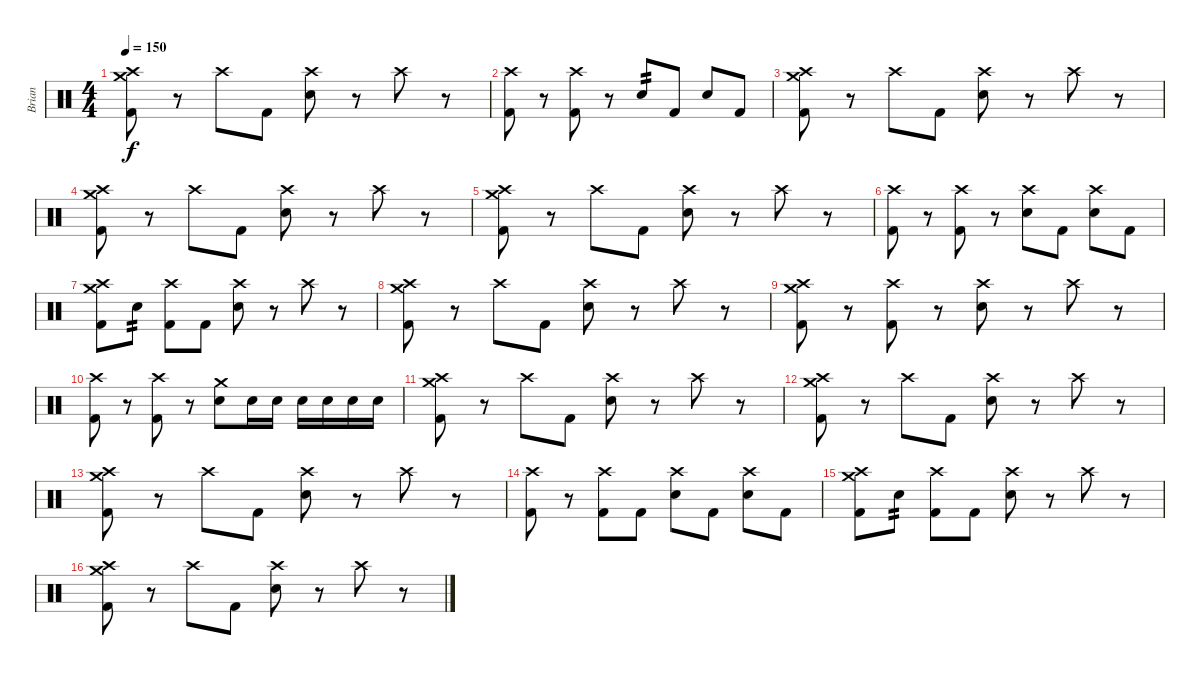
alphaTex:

\track ("Brian" "Brian") {instrument percussion}
\staff {score}
\articulation defaults
\ts (4 4)
\tempo 150
\clef neutral
\ks c
("Crash high (hit)" "Crash medium (hit)" "Kick (hit) 2").8{dy f} r.8 "Crash high (hit)".8 "Kick (hit) 2".8 ("Crash high (hit)" "Snare (hit) 2").8 r.8 "Crash high (hit)".8 r.8 |
("Crash high (hit)" "Kick (hit) 2").8 r.8 ("Crash high (hit)" "Kick (hit) 2").8 r.8 "Snare (hit) 2".8{tp 2} "Kick (hit) 2".8 "Snare (hit) 2".8 "Kick (hit) 2".8 |
("Crash high (hit)" "Crash medium (hit)" "Kick (hit) 2").8 r.8 "Crash high (hit)".8 "Kick (hit) 2".8 ("Crash high (hit)" "Snare (hit) 2").8 r.8 "Crash high (hit)".8 r.8 |
("Crash high (hit)" "Crash medium (hit)" "Kick (hit) 2").8 r.8 "Crash high (hit)".8 "Kick (hit) 2".8 ("Crash high (hit)" "Snare (hit) 2").8 r.8 "Crash high (hit)".8 r.8 |
("Crash high (hit)" "Crash medium (hit)" "Kick (hit) 2").8 r.8 "Crash high (hit)".8 "Kick (hit) 2".8 ("Crash high (hit)" "Snare (hit) 2").8 r.8 "Crash high (hit)".8 r.8 |
("Crash high (hit)" "Kick (hit) 2").8 r.8 ("Crash high (hit)" "Kick (hit) 2").8 r.8 ("Crash high (hit)" "Snare (hit) 2").8 "Kick (hit) 2".8 ("Crash high (hit)" "Snare (hit) 2").8 "Kick (hit) 2".8 |
("Crash high (hit)" "Crash medium (hit)" "Kick (hit) 2").8 "Snare (hit) 2".8{tp 2} ("Crash high (hit)" "Kick (hit) 2").8 "Kick (hit) 2".8 ("Crash high (hit)" "Snare (hit) 2").8 r.8 "Crash high (hit)".8 r.8 |
("Crash high (hit)" "Crash medium (hit)" "Kick (hit) 2").8 r.8 "Crash high (hit)".8 "Kick (hit) 2".8 ("Crash high (hit)" "Snare (hit) 2").8 r.8 "Crash high (hit)".8 r.8 |
("Crash high (hit)" "Crash medium (hit)" "Kick (hit) 2").8 r.8 ("Crash high (hit)" "Kick (hit) 2").8 r.8 ("Crash high (hit)" "Snare (hit) 2").8 r.8 "Crash high (hit)".8 r.8 |
("Crash high (hit)" "Kick (hit) 2").8 r.8 ("Crash high (hit)" "Kick (hit) 2").8 r.8 ("Crash medium (hit)" "Snare (hit) 2").8 "Snare (hit) 2".16 "Snare (hit) 2".16 "Snare (hit) 2".16 "Snare (hit) 2".16 "Snare (hit) 2".16 "Snare (hit) 2".16 |
("Crash high (hit)" "Crash medium (hit)" "Kick (hit) 2").8 r.8 "Crash high (hit)".8 "Kick (hit) 2".8 ("Crash high (hit)" "Snare (hit) 2").8 r.8 "Crash high (hit)".8 r.8 |
("Crash high (hit)" "Crash medium (hit)" "Kick (hit) 2").8 r.8 "Crash high (hit)".8 "Kick (hit) 2".8 ("Crash high (hit)" "Snare (hit) 2").8 r.8 "Crash high (hit)".8 r.8 |
("Crash high (hit)" "Crash medium (hit)" "Kick (hit) 2").8 r.8 "Crash high (hit)".8 "Kick (hit) 2".8 ("Crash high (hit)" "Snare (hit) 2").8 r.8 "Crash high (hit)".8 r.8 |
("Crash high (hit)" "Kick (hit) 2").8 r.8 ("Crash high (hit)" "Kick (hit) 2").8 "Kick (hit) 2".8 ("Crash high (hit)" "Snare (hit) 2").8 "Kick (hit) 2".8 ("Crash high (hit)" "Snare (hit) 2").8 "Kick (hit) 2".8 |
("Crash high (hit)" "Crash medium (hit)" "Kick (hit) 2").8 "Snare (hit) 2".8{tp 2} ("Crash high (hit)" "Kick (hit) 2").8 "Kick (hit) 2".8 ("Crash high (hit)" "Snare (hit) 2").8 r.8 "Crash high (hit)".8 r.8 |
("Crash high (hit)" "Crash medium (hit)" "Kick (hit) 2").8 r.8 "Crash high (hit)".8 "Kick (hit) 2".8 ("Crash high (hit)" "Snare (hit) 2").8 r.8 "Crash high (hit)".8 r.8
